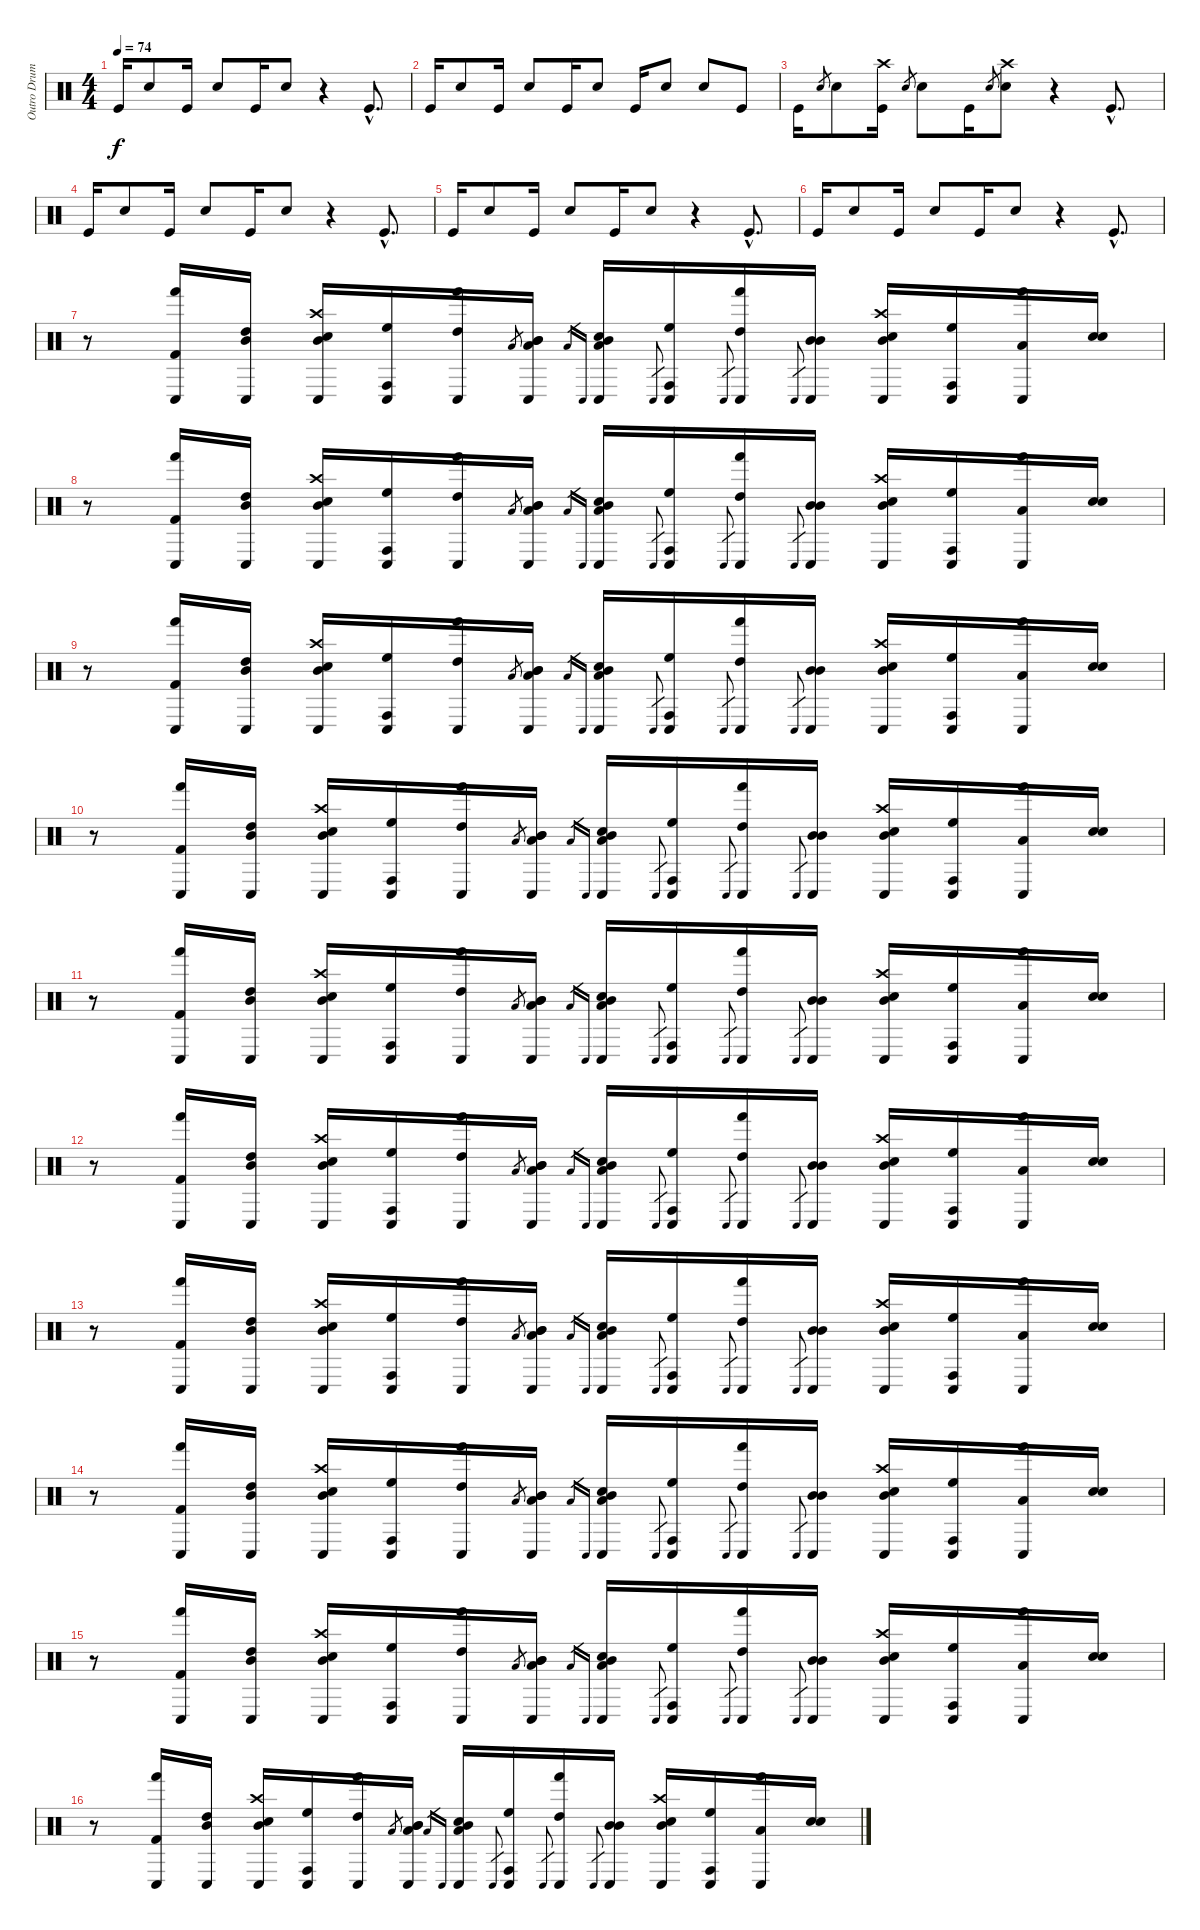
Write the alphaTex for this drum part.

\track ("Outro Drums" "Outro Drum") {instrument percussion}
\staff {score}
\articulation defaults
\ts (4 4)
\tempo 74
\clef neutral
\ks c "Kick (hit)".16{dy f} "Snare (hit) 2".8 "Kick (hit)".16 "Snare (hit) 2".8 "Kick (hit)".16 "Snare (hit) 2".8
r.4 "Kick (hit)"{hac}.8{d} |
"Kick (hit)".16 "Snare (hit) 2".8 "Kick (hit)".16 "Snare (hit) 2".8 "Kick (hit)".16 "Snare (hit) 2".8 "Kick (hit)".16 "Snare (hit) 2".8 "Snare (hit) 2".8 "Kick (hit)".8 |
"Kick (hit)".16 "Snare (hit) 2".8{gr} "Snare (hit) 2".8 ("Crash high (hit)" "Kick (hit)").16 "Snare (hit) 2".8{gr} "Snare (hit) 2".8 "Kick (hit)".16 "Snare (hit) 2".8{gr} ("Crash high (hit)" "Snare (hit) 2").8 r.4 "Kick (hit)"{hac}.8{d} |
"Kick (hit)".16 "Snare (hit) 2".8 "Kick (hit)".16 "Snare (hit) 2".8 "Kick (hit)".16 "Snare (hit) 2".8 r.4 "Kick (hit)"{hac}.8{d} |
"Kick (hit)".16 "Snare (hit) 2".8 "Kick (hit)".16 "Snare (hit) 2".8 "Kick (hit)".16 "Snare (hit) 2".8 r.4 "Kick (hit)"{hac}.8{d} |
"Kick (hit)".16 "Snare (hit) 2".8 "Kick (hit)".16 "Snare (hit) 2".8 "Kick (hit)".16 "Snare (hit) 2".8 r.4 "Kick (hit)"{hac}.8{d} |
r.8 ("Kick (hit) 2" "Conga low (hit)" "Hand (hit)").16 ("High Tom (hit)" "Conga low (hit)" "Mid Tom (hit)").16 ("Crash high (hit)" "Electric Snare (hit)" "Conga low (hit)" "Mid Tom (hit)").16 ("High Floor Tom (hit)" "Conga low (hit)" "Conga high (hit)").16 ("High Tom (hit)" "Conga low (hit)" "Hand (hit)").16 "Low Tom (hit)".8{gr} ("Low Tom (hit)" "Mid Tom (hit)" "Conga low (hit)" "Mid Tom (hit)").16 "Low Tom (hit)".16{gr} "Conga low (hit)".16{gr} ("Low Tom (hit)" "Electric Snare (hit)" "Conga low (hit)" "Mid Tom (hit)").16 "Conga low (hit)".8{gr} ("High Floor Tom (hit)" "Conga low (hit)" "Conga high (hit)").16 "Conga low (hit)".8{gr} ("High Tom (hit)" "Conga low (hit)" "Hand (hit)").16 "Conga low (hit)".8{gr} ("Mid Tom (hit)" "Conga low (hit)" "Mid Tom (hit)").16 ("Crash high (hit)" "Electric Snare (hit)" "Conga low (hit)" "Mid Tom (hit)").16 ("High Floor Tom (hit)" "Conga low (hit)" "Conga high (hit)").16 ("Low Tom (hit)" "Conga low (hit)" "Hand (hit)").16 ("Snare (hit) 2" "Electric Snare (hit)").16 |
r.8 ("Kick (hit) 2" "Conga low (hit)" "Hand (hit)").16 ("High Tom (hit)" "Conga low (hit)" "Mid Tom (hit)").16 ("Crash high (hit)" "Electric Snare (hit)" "Conga low (hit)" "Mid Tom (hit)").16 ("High Floor Tom (hit)" "Conga low (hit)" "Conga high (hit)").16 ("High Tom (hit)" "Conga low (hit)" "Hand (hit)").16 "Low Tom (hit)".8{gr} ("Low Tom (hit)" "Mid Tom (hit)" "Conga low (hit)" "Mid Tom (hit)").16 "Low Tom (hit)".16{gr} "Conga low (hit)".16{gr} ("Low Tom (hit)" "Electric Snare (hit)" "Conga low (hit)" "Mid Tom (hit)").16 "Conga low (hit)".8{gr} ("High Floor Tom (hit)" "Conga low (hit)" "Conga high (hit)").16 "Conga low (hit)".8{gr} ("High Tom (hit)" "Conga low (hit)" "Hand (hit)").16 "Conga low (hit)".8{gr} ("Mid Tom (hit)" "Conga low (hit)" "Mid Tom (hit)").16 ("Crash high (hit)" "Electric Snare (hit)" "Conga low (hit)" "Mid Tom (hit)").16 ("High Floor Tom (hit)" "Conga low (hit)" "Conga high (hit)").16 ("Low Tom (hit)" "Conga low (hit)" "Hand (hit)").16 ("Snare (hit) 2" "Electric Snare (hit)").16 |
r.8 ("Kick (hit) 2" "Conga low (hit)" "Hand (hit)").16 ("High Tom (hit)" "Conga low (hit)" "Mid Tom (hit)").16 ("Crash high (hit)" "Electric Snare (hit)" "Conga low (hit)" "Mid Tom (hit)").16 ("High Floor Tom (hit)" "Conga low (hit)" "Conga high (hit)").16 ("High Tom (hit)" "Conga low (hit)" "Hand (hit)").16 "Low Tom (hit)".8{gr} ("Low Tom (hit)" "Mid Tom (hit)" "Conga low (hit)" "Mid Tom (hit)").16 "Low Tom (hit)".16{gr} "Conga low (hit)".16{gr} ("Low Tom (hit)" "Electric Snare (hit)" "Conga low (hit)" "Mid Tom (hit)").16 "Conga low (hit)".8{gr} ("High Floor Tom (hit)" "Conga low (hit)" "Conga high (hit)").16 "Conga low (hit)".8{gr} ("High Tom (hit)" "Conga low (hit)" "Hand (hit)").16 "Conga low (hit)".8{gr} ("Mid Tom (hit)" "Conga low (hit)" "Mid Tom (hit)").16 ("Crash high (hit)" "Electric Snare (hit)" "Conga low (hit)" "Mid Tom (hit)").16 ("High Floor Tom (hit)" "Conga low (hit)" "Conga high (hit)").16 ("Low Tom (hit)" "Conga low (hit)" "Hand (hit)").16 ("Snare (hit) 2" "Electric Snare (hit)").16 |
r.8 ("Kick (hit) 2" "Conga low (hit)" "Hand (hit)").16 ("High Tom (hit)" "Conga low (hit)" "Mid Tom (hit)").16 ("Crash high (hit)" "Electric Snare (hit)" "Conga low (hit)" "Mid Tom (hit)").16 ("High Floor Tom (hit)" "Conga low (hit)" "Conga high (hit)").16 ("High Tom (hit)" "Conga low (hit)" "Hand (hit)").16 "Low Tom (hit)".8{gr} ("Low Tom (hit)" "Mid Tom (hit)" "Conga low (hit)" "Mid Tom (hit)").16 "Low Tom (hit)".16{gr} "Conga low (hit)".16{gr} ("Low Tom (hit)" "Electric Snare (hit)" "Conga low (hit)" "Mid Tom (hit)").16 "Conga low (hit)".8{gr} ("High Floor Tom (hit)" "Conga low (hit)" "Conga high (hit)").16 "Conga low (hit)".8{gr} ("High Tom (hit)" "Conga low (hit)" "Hand (hit)").16 "Conga low (hit)".8{gr} ("Mid Tom (hit)" "Conga low (hit)" "Mid Tom (hit)").16 ("Crash high (hit)" "Electric Snare (hit)" "Conga low (hit)" "Mid Tom (hit)").16 ("High Floor Tom (hit)" "Conga low (hit)" "Conga high (hit)").16 ("Low Tom (hit)" "Conga low (hit)" "Hand (hit)").16 ("Snare (hit) 2" "Electric Snare (hit)").16 |
r.8 ("Kick (hit) 2" "Conga low (hit)" "Hand (hit)").16 ("High Tom (hit)" "Conga low (hit)" "Mid Tom (hit)").16 ("Crash high (hit)" "Electric Snare (hit)" "Conga low (hit)" "Mid Tom (hit)").16 ("High Floor Tom (hit)" "Conga low (hit)" "Conga high (hit)").16 ("High Tom (hit)" "Conga low (hit)" "Hand (hit)").16 "Low Tom (hit)".8{gr} ("Low Tom (hit)" "Mid Tom (hit)" "Conga low (hit)" "Mid Tom (hit)").16 "Low Tom (hit)".16{gr} "Conga low (hit)".16{gr} ("Low Tom (hit)" "Electric Snare (hit)" "Conga low (hit)" "Mid Tom (hit)").16 "Conga low (hit)".8{gr} ("High Floor Tom (hit)" "Conga low (hit)" "Conga high (hit)").16 "Conga low (hit)".8{gr} ("High Tom (hit)" "Conga low (hit)" "Hand (hit)").16 "Conga low (hit)".8{gr} ("Mid Tom (hit)" "Conga low (hit)" "Mid Tom (hit)").16 ("Crash high (hit)" "Electric Snare (hit)" "Conga low (hit)" "Mid Tom (hit)").16 ("High Floor Tom (hit)" "Conga low (hit)" "Conga high (hit)").16 ("Low Tom (hit)" "Conga low (hit)" "Hand (hit)").16 ("Snare (hit) 2" "Electric Snare (hit)").16 |
r.8 ("Kick (hit) 2" "Conga low (hit)" "Hand (hit)").16 ("High Tom (hit)" "Conga low (hit)" "Mid Tom (hit)").16 ("Crash high (hit)" "Electric Snare (hit)" "Conga low (hit)" "Mid Tom (hit)").16 ("High Floor Tom (hit)" "Conga low (hit)" "Conga high (hit)").16 ("High Tom (hit)" "Conga low (hit)" "Hand (hit)").16 "Low Tom (hit)".8{gr} ("Low Tom (hit)" "Mid Tom (hit)" "Conga low (hit)" "Mid Tom (hit)").16 "Low Tom (hit)".16{gr} "Conga low (hit)".16{gr} ("Low Tom (hit)" "Electric Snare (hit)" "Conga low (hit)" "Mid Tom (hit)").16 "Conga low (hit)".8{gr} ("High Floor Tom (hit)" "Conga low (hit)" "Conga high (hit)").16 "Conga low (hit)".8{gr} ("High Tom (hit)" "Conga low (hit)" "Hand (hit)").16 "Conga low (hit)".8{gr} ("Mid Tom (hit)" "Conga low (hit)" "Mid Tom (hit)").16 ("Crash high (hit)" "Electric Snare (hit)" "Conga low (hit)" "Mid Tom (hit)").16 ("High Floor Tom (hit)" "Conga low (hit)" "Conga high (hit)").16 ("Low Tom (hit)" "Conga low (hit)" "Hand (hit)").16 ("Snare (hit) 2" "Electric Snare (hit)").16 |
r.8 ("Kick (hit) 2" "Conga low (hit)" "Hand (hit)").16 ("High Tom (hit)" "Conga low (hit)" "Mid Tom (hit)").16 ("Crash high (hit)" "Electric Snare (hit)" "Conga low (hit)" "Mid Tom (hit)").16 ("High Floor Tom (hit)" "Conga low (hit)" "Conga high (hit)").16 ("High Tom (hit)" "Conga low (hit)" "Hand (hit)").16 "Low Tom (hit)".8{gr} ("Low Tom (hit)" "Mid Tom (hit)" "Conga low (hit)" "Mid Tom (hit)").16 "Low Tom (hit)".16{gr} "Conga low (hit)".16{gr} ("Low Tom (hit)" "Electric Snare (hit)" "Conga low (hit)" "Mid Tom (hit)").16 "Conga low (hit)".8{gr} ("High Floor Tom (hit)" "Conga low (hit)" "Conga high (hit)").16 "Conga low (hit)".8{gr} ("High Tom (hit)" "Conga low (hit)" "Hand (hit)").16 "Conga low (hit)".8{gr} ("Mid Tom (hit)" "Conga low (hit)" "Mid Tom (hit)").16 ("Crash high (hit)" "Electric Snare (hit)" "Conga low (hit)" "Mid Tom (hit)").16 ("High Floor Tom (hit)" "Conga low (hit)" "Conga high (hit)").16 ("Low Tom (hit)" "Conga low (hit)" "Hand (hit)").16 ("Snare (hit) 2" "Electric Snare (hit)").16 |
r.8 ("Kick (hit) 2" "Conga low (hit)" "Hand (hit)").16 ("High Tom (hit)" "Conga low (hit)" "Mid Tom (hit)").16 ("Crash high (hit)" "Electric Snare (hit)" "Conga low (hit)" "Mid Tom (hit)").16 ("High Floor Tom (hit)" "Conga low (hit)" "Conga high (hit)").16 ("High Tom (hit)" "Conga low (hit)" "Hand (hit)").16 "Low Tom (hit)".8{gr} ("Low Tom (hit)" "Mid Tom (hit)" "Conga low (hit)" "Mid Tom (hit)").16 "Low Tom (hit)".16{gr} "Conga low (hit)".16{gr} ("Low Tom (hit)" "Electric Snare (hit)" "Conga low (hit)" "Mid Tom (hit)").16 "Conga low (hit)".8{gr} ("High Floor Tom (hit)" "Conga low (hit)" "Conga high (hit)").16 "Conga low (hit)".8{gr} ("High Tom (hit)" "Conga low (hit)" "Hand (hit)").16 "Conga low (hit)".8{gr} ("Mid Tom (hit)" "Conga low (hit)" "Mid Tom (hit)").16 ("Crash high (hit)" "Electric Snare (hit)" "Conga low (hit)" "Mid Tom (hit)").16 ("High Floor Tom (hit)" "Conga low (hit)" "Conga high (hit)").16 ("Low Tom (hit)" "Conga low (hit)" "Hand (hit)").16 ("Snare (hit) 2" "Electric Snare (hit)").16 |
r.8 ("Kick (hit) 2" "Conga low (hit)" "Hand (hit)").16 ("High Tom (hit)" "Conga low (hit)" "Mid Tom (hit)").16 ("Crash high (hit)" "Electric Snare (hit)" "Conga low (hit)" "Mid Tom (hit)").16 ("High Floor Tom (hit)" "Conga low (hit)" "Conga high (hit)").16 ("High Tom (hit)" "Conga low (hit)" "Hand (hit)").16 "Low Tom (hit)".8{gr} ("Low Tom (hit)" "Mid Tom (hit)" "Conga low (hit)" "Mid Tom (hit)").16 "Low Tom (hit)".16{gr} "Conga low (hit)".16{gr} ("Low Tom (hit)" "Electric Snare (hit)" "Conga low (hit)" "Mid Tom (hit)").16 "Conga low (hit)".8{gr} ("High Floor Tom (hit)" "Conga low (hit)" "Conga high (hit)").16 "Conga low (hit)".8{gr} ("High Tom (hit)" "Conga low (hit)" "Hand (hit)").16 "Conga low (hit)".8{gr} ("Mid Tom (hit)" "Conga low (hit)" "Mid Tom (hit)").16 ("Crash high (hit)" "Electric Snare (hit)" "Conga low (hit)" "Mid Tom (hit)").16 ("High Floor Tom (hit)" "Conga low (hit)" "Conga high (hit)").16 ("Low Tom (hit)" "Conga low (hit)" "Hand (hit)").16 ("Snare (hit) 2" "Electric Snare (hit)").16 |
r.8 ("Kick (hit) 2" "Conga low (hit)" "Hand (hit)").16 ("High Tom (hit)" "Conga low (hit)" "Mid Tom (hit)").16 ("Crash high (hit)" "Electric Snare (hit)" "Conga low (hit)" "Mid Tom (hit)").16 ("High Floor Tom (hit)" "Conga low (hit)" "Conga high (hit)").16 ("High Tom (hit)" "Conga low (hit)" "Hand (hit)").16 "Low Tom (hit)".8{gr} ("Low Tom (hit)" "Mid Tom (hit)" "Conga low (hit)" "Mid Tom (hit)").16 "Low Tom (hit)".16{gr} "Conga low (hit)".16{gr} ("Low Tom (hit)" "Electric Snare (hit)" "Conga low (hit)" "Mid Tom (hit)").16 "Conga low (hit)".8{gr} ("High Floor Tom (hit)" "Conga low (hit)" "Conga high (hit)").16 "Conga low (hit)".8{gr} ("High Tom (hit)" "Conga low (hit)" "Hand (hit)").16 "Conga low (hit)".8{gr} ("Mid Tom (hit)" "Conga low (hit)" "Mid Tom (hit)").16 ("Crash high (hit)" "Electric Snare (hit)" "Conga low (hit)" "Mid Tom (hit)").16 ("High Floor Tom (hit)" "Conga low (hit)" "Conga high (hit)").16 ("Low Tom (hit)" "Conga low (hit)" "Hand (hit)").16 ("Snare (hit) 2" "Electric Snare (hit)").16
